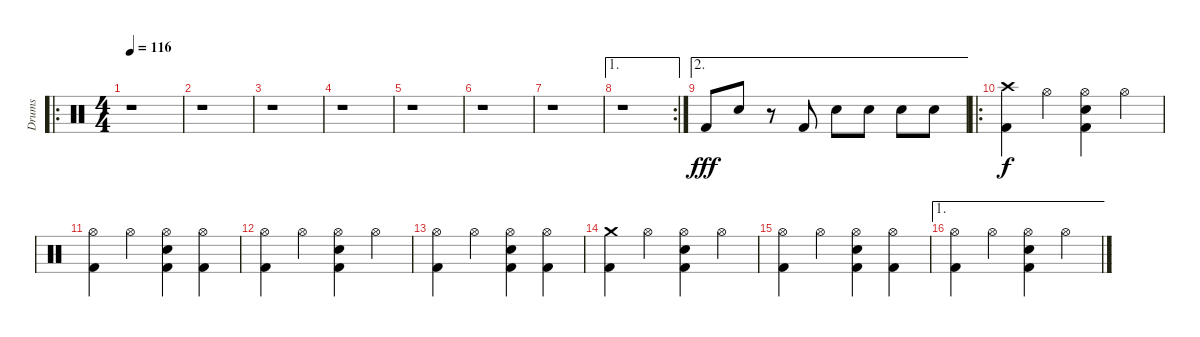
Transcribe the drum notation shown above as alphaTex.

\track ("Drums" "Drums") {instrument percussion}
\staff {score}
\articulation defaults
\ro
\ts (4 4)
\tempo 116
\clef neutral
\ks c
r.1{dy f} |
r.1 |
r.1 |
r.1 |
r.1 |
r.1 |
r.1 |
\ae 1
\rc 2
r.1 |
\ae 2 "Kick (hit) 2".8{dy fff} "Snare (hit) 2".8
r.8 "Kick (hit) 2".8 "Snare (hit) 2".8 "Snare (hit) 2".8 "Snare (hit) 2".8 "Snare (hit) 2".8 |
\ro
("Kick (hit) 2" "Crash high (hit)").4{dy f volume 13} "Hi-Hat (open)".4 ("Kick (hit) 2" "Hi-Hat (open)" "Snare (hit) 2").4 "Hi-Hat (open)".4 |
("Kick (hit) 2" "Hi-Hat (open)").4 "Hi-Hat (open)".4 ("Kick (hit) 2" "Hi-Hat (open)" "Snare (hit) 2").4 ("Kick (hit) 2" "Hi-Hat (open)").4 |
("Kick (hit) 2" "Hi-Hat (open)").4 "Hi-Hat (open)".4 ("Kick (hit) 2" "Hi-Hat (open)" "Snare (hit) 2").4 "Hi-Hat (open)".4 |
("Kick (hit) 2" "Hi-Hat (open)").4 "Hi-Hat (open)".4 ("Kick (hit) 2" "Hi-Hat (open)" "Snare (hit) 2").4 ("Kick (hit) 2" "Hi-Hat (open)").4 |
("Kick (hit) 2" "Crash medium (hit)").4 "Hi-Hat (open)".4 ("Kick (hit) 2" "Hi-Hat (open)" "Snare (hit) 2").4 "Hi-Hat (open)".4 |
("Kick (hit) 2" "Hi-Hat (open)").4 "Hi-Hat (open)".4 ("Kick (hit) 2" "Hi-Hat (open)" "Snare (hit) 2").4 ("Kick (hit) 2" "Hi-Hat (open)").4 |
\ae 1
("Kick (hit) 2" "Hi-Hat (open)").4 "Hi-Hat (open)".4 ("Kick (hit) 2" "Hi-Hat (open)" "Snare (hit) 2").4 "Hi-Hat (open)".4
